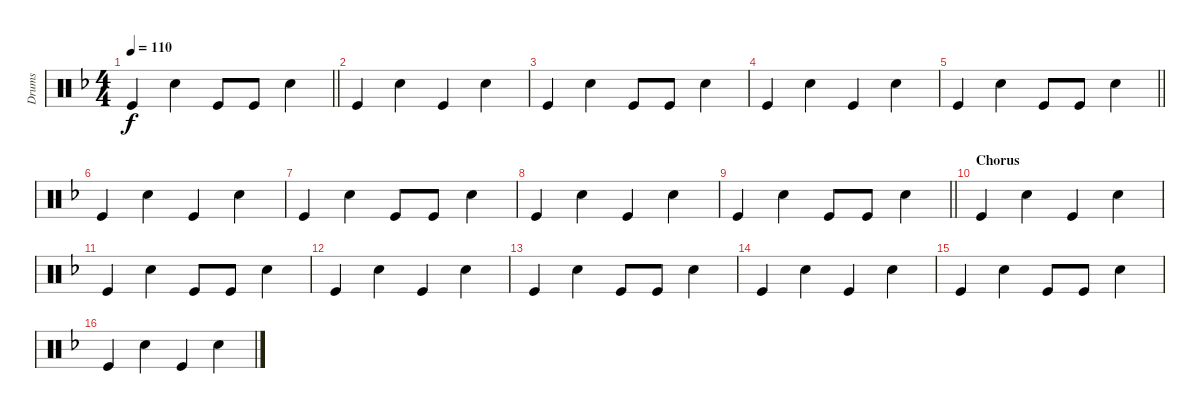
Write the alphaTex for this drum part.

\track ("Drums" "Drums") {instrument percussion}
\staff {score}
\articulation defaults
\ts (4 4)
\tempo 110
\clef neutral
\barLineRight lightlight
\ks dminor "Kick (hit)".4{dy f} "Snare (hit) 2".4 "Kick (hit)".8 "Kick (hit)".8 "Snare (hit) 2".4
|
"Kick (hit)".4 "Snare (hit) 2".4 "Kick (hit)".4 "Snare (hit) 2".4 |
"Kick (hit)".4 "Snare (hit) 2".4 "Kick (hit)".8 "Kick (hit)".8 "Snare (hit) 2".4 |
"Kick (hit)".4 "Snare (hit) 2".4 "Kick (hit)".4 "Snare (hit) 2".4 |
\barLineRight lightlight "Kick (hit)".4 "Snare (hit) 2".4 "Kick (hit)".8 "Kick (hit)".8 "Snare (hit) 2".4
|
"Kick (hit)".4 "Snare (hit) 2".4 "Kick (hit)".4 "Snare (hit) 2".4 |
"Kick (hit)".4 "Snare (hit) 2".4 "Kick (hit)".8 "Kick (hit)".8 "Snare (hit) 2".4 |
"Kick (hit)".4 "Snare (hit) 2".4 "Kick (hit)".4 "Snare (hit) 2".4 |
\barLineRight lightlight "Kick (hit)".4 "Snare (hit) 2".4 "Kick (hit)".8 "Kick (hit)".8 "Snare (hit) 2".4
|
\section ("" "Chorus")
"Kick (hit)".4 "Snare (hit) 2".4 "Kick (hit)".4 "Snare (hit) 2".4 |
"Kick (hit)".4 "Snare (hit) 2".4 "Kick (hit)".8 "Kick (hit)".8 "Snare (hit) 2".4 |
"Kick (hit)".4 "Snare (hit) 2".4 "Kick (hit)".4 "Snare (hit) 2".4 |
"Kick (hit)".4 "Snare (hit) 2".4 "Kick (hit)".8 "Kick (hit)".8 "Snare (hit) 2".4 |
"Kick (hit)".4 "Snare (hit) 2".4 "Kick (hit)".4 "Snare (hit) 2".4 |
"Kick (hit)".4 "Snare (hit) 2".4 "Kick (hit)".8 "Kick (hit)".8 "Snare (hit) 2".4 |
"Kick (hit)".4 "Snare (hit) 2".4 "Kick (hit)".4 "Snare (hit) 2".4
